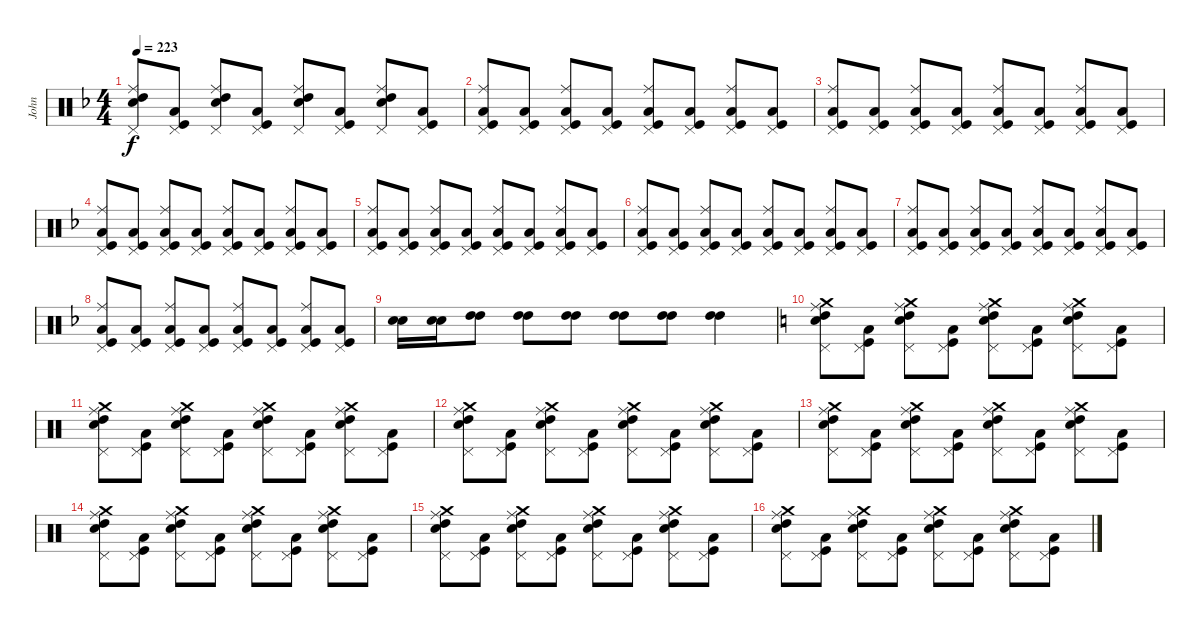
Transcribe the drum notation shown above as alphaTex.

\track ("John" "John") {instrument percussion}
\staff {score}
\articulation defaults
\ts (4 4)
\tempo 223
\clef neutral
\ks f
("Ride (middle)" "Snare (hit) 2" "High Tom (hit)" "Pedal Hi-Hat (hit)").8{dy f} ("Kick (hit)" "Low Tom (hit)" "Pedal Hi-Hat (hit)").8 ("Ride (middle)" "Snare (hit) 2" "High Tom (hit)" "Pedal Hi-Hat (hit)").8 ("Kick (hit)" "Low Tom (hit)" "Pedal Hi-Hat (hit)").8 ("Ride (middle)" "Snare (hit) 2" "High Tom (hit)" "Pedal Hi-Hat (hit)").8 ("Kick (hit)" "Low Tom (hit)" "Pedal Hi-Hat (hit)").8 ("Ride (middle)" "Snare (hit) 2" "High Tom (hit)" "Pedal Hi-Hat (hit)").8 ("Kick (hit)" "Low Tom (hit)" "Pedal Hi-Hat (hit)").8 |
("Ride (middle)" "Kick (hit)" "Low Tom (hit)" "Pedal Hi-Hat (hit)").8 ("Kick (hit)" "Low Tom (hit)" "Pedal Hi-Hat (hit)").8 ("Ride (middle)" "Kick (hit)" "Low Tom (hit)" "Pedal Hi-Hat (hit)").8 ("Kick (hit)" "Low Tom (hit)" "Pedal Hi-Hat (hit)").8 ("Ride (middle)" "Kick (hit)" "Low Tom (hit)" "Pedal Hi-Hat (hit)").8 ("Kick (hit)" "Low Tom (hit)" "Pedal Hi-Hat (hit)").8 ("Ride (middle)" "Kick (hit)" "Low Tom (hit)" "Pedal Hi-Hat (hit)").8 ("Kick (hit)" "Low Tom (hit)" "Pedal Hi-Hat (hit)").8 |
("Ride (middle)" "Kick (hit)" "Low Tom (hit)" "Pedal Hi-Hat (hit)").8 ("Kick (hit)" "Low Tom (hit)" "Pedal Hi-Hat (hit)").8 ("Ride (middle)" "Kick (hit)" "Low Tom (hit)" "Pedal Hi-Hat (hit)").8 ("Kick (hit)" "Low Tom (hit)" "Pedal Hi-Hat (hit)").8 ("Ride (middle)" "Kick (hit)" "Low Tom (hit)" "Pedal Hi-Hat (hit)").8 ("Kick (hit)" "Low Tom (hit)" "Pedal Hi-Hat (hit)").8 ("Ride (middle)" "Kick (hit)" "Low Tom (hit)" "Pedal Hi-Hat (hit)").8 ("Kick (hit)" "Low Tom (hit)" "Pedal Hi-Hat (hit)").8 |
("Ride (middle)" "Kick (hit)" "Low Tom (hit)" "Pedal Hi-Hat (hit)").8 ("Kick (hit)" "Low Tom (hit)" "Pedal Hi-Hat (hit)").8 ("Ride (middle)" "Kick (hit)" "Low Tom (hit)" "Pedal Hi-Hat (hit)").8 ("Kick (hit)" "Low Tom (hit)" "Pedal Hi-Hat (hit)").8 ("Ride (middle)" "Kick (hit)" "Low Tom (hit)" "Pedal Hi-Hat (hit)").8 ("Kick (hit)" "Low Tom (hit)" "Pedal Hi-Hat (hit)").8 ("Ride (middle)" "Kick (hit)" "Low Tom (hit)" "Pedal Hi-Hat (hit)").8 ("Kick (hit)" "Low Tom (hit)" "Pedal Hi-Hat (hit)").8 |
("Ride (middle)" "Kick (hit)" "Low Tom (hit)" "Pedal Hi-Hat (hit)").8 ("Kick (hit)" "Low Tom (hit)" "Pedal Hi-Hat (hit)").8 ("Ride (middle)" "Kick (hit)" "Low Tom (hit)" "Pedal Hi-Hat (hit)").8 ("Kick (hit)" "Low Tom (hit)" "Pedal Hi-Hat (hit)").8 ("Ride (middle)" "Kick (hit)" "Low Tom (hit)" "Pedal Hi-Hat (hit)").8 ("Kick (hit)" "Low Tom (hit)" "Pedal Hi-Hat (hit)").8 ("Ride (middle)" "Kick (hit)" "Low Tom (hit)" "Pedal Hi-Hat (hit)").8 ("Kick (hit)" "Low Tom (hit)" "Pedal Hi-Hat (hit)").8 |
("Ride (middle)" "Kick (hit)" "Low Tom (hit)" "Pedal Hi-Hat (hit)").8 ("Kick (hit)" "Low Tom (hit)" "Pedal Hi-Hat (hit)").8 ("Ride (middle)" "Kick (hit)" "Low Tom (hit)" "Pedal Hi-Hat (hit)").8 ("Kick (hit)" "Low Tom (hit)" "Pedal Hi-Hat (hit)").8 ("Ride (middle)" "Kick (hit)" "Low Tom (hit)" "Pedal Hi-Hat (hit)").8 ("Kick (hit)" "Low Tom (hit)" "Pedal Hi-Hat (hit)").8 ("Ride (middle)" "Kick (hit)" "Low Tom (hit)" "Pedal Hi-Hat (hit)").8 ("Kick (hit)" "Low Tom (hit)" "Pedal Hi-Hat (hit)").8 |
("Ride (middle)" "Kick (hit)" "Low Tom (hit)" "Pedal Hi-Hat (hit)").8 ("Kick (hit)" "Low Tom (hit)" "Pedal Hi-Hat (hit)").8 ("Ride (middle)" "Kick (hit)" "Low Tom (hit)" "Pedal Hi-Hat (hit)").8 ("Kick (hit)" "Low Tom (hit)" "Pedal Hi-Hat (hit)").8 ("Ride (middle)" "Kick (hit)" "Low Tom (hit)" "Pedal Hi-Hat (hit)").8 ("Kick (hit)" "Low Tom (hit)" "Pedal Hi-Hat (hit)").8 ("Ride (middle)" "Kick (hit)" "Low Tom (hit)" "Pedal Hi-Hat (hit)").8 ("Kick (hit)" "Low Tom (hit)" "Pedal Hi-Hat (hit)").8 |
("Ride (middle)" "Kick (hit)" "Low Tom (hit)" "Pedal Hi-Hat (hit)").8 ("Kick (hit)" "Low Tom (hit)" "Pedal Hi-Hat (hit)").8 ("Ride (middle)" "Kick (hit)" "Low Tom (hit)" "Pedal Hi-Hat (hit)").8 ("Kick (hit)" "Low Tom (hit)" "Pedal Hi-Hat (hit)").8 ("Ride (middle)" "Kick (hit)" "Low Tom (hit)" "Pedal Hi-Hat (hit)").8 ("Kick (hit)" "Low Tom (hit)" "Pedal Hi-Hat (hit)").8 ("Ride (middle)" "Kick (hit)" "Low Tom (hit)" "Pedal Hi-Hat (hit)").8 ("Kick (hit)" "Low Tom (hit)" "Pedal Hi-Hat (hit)").8 |
("Snare (hit) 2" "Snare (hit) 2").16 ("Snare (hit) 2" "Snare (hit) 2").16 ("High Tom (hit)" "High Tom (hit)").8 ("High Tom (hit)" "High Tom (hit)").8 ("High Tom (hit)" "High Tom (hit)").8 ("High Tom (hit)" "High Tom (hit)").8 ("High Tom (hit)" "High Tom (hit)").8 ("High Tom (hit)" "High Tom (hit)").4 |
\ks c
("Crash medium (hit)" "Ride (middle)" "Snare (hit) 2" "High Tom (hit)" "Pedal Hi-Hat (hit)").8 ("Kick (hit)" "Low Tom (hit)" "Pedal Hi-Hat (hit)").8 ("Crash medium (hit)" "Ride (middle)" "Snare (hit) 2" "High Tom (hit)" "Pedal Hi-Hat (hit)").8 ("Kick (hit)" "Low Tom (hit)" "Pedal Hi-Hat (hit)").8 ("Crash medium (hit)" "Ride (middle)" "Snare (hit) 2" "High Tom (hit)" "Pedal Hi-Hat (hit)").8 ("Kick (hit)" "Low Tom (hit)" "Pedal Hi-Hat (hit)").8 ("Crash medium (hit)" "Ride (middle)" "Snare (hit) 2" "High Tom (hit)" "Pedal Hi-Hat (hit)").8 ("Kick (hit)" "Low Tom (hit)" "Pedal Hi-Hat (hit)").8 |
("Crash medium (hit)" "Ride (middle)" "Snare (hit) 2" "High Tom (hit)" "Pedal Hi-Hat (hit)").8 ("Kick (hit)" "Low Tom (hit)" "Pedal Hi-Hat (hit)").8 ("Crash medium (hit)" "Ride (middle)" "Snare (hit) 2" "High Tom (hit)" "Pedal Hi-Hat (hit)").8 ("Kick (hit)" "Low Tom (hit)" "Pedal Hi-Hat (hit)").8 ("Crash medium (hit)" "Ride (middle)" "Snare (hit) 2" "High Tom (hit)" "Pedal Hi-Hat (hit)").8 ("Kick (hit)" "Low Tom (hit)" "Pedal Hi-Hat (hit)").8 ("Crash medium (hit)" "Ride (middle)" "Snare (hit) 2" "High Tom (hit)" "Pedal Hi-Hat (hit)").8 ("Kick (hit)" "Low Tom (hit)" "Pedal Hi-Hat (hit)").8 |
("Crash medium (hit)" "Ride (middle)" "Snare (hit) 2" "High Tom (hit)" "Pedal Hi-Hat (hit)").8 ("Kick (hit)" "Low Tom (hit)" "Pedal Hi-Hat (hit)").8 ("Crash medium (hit)" "Ride (middle)" "Snare (hit) 2" "High Tom (hit)" "Pedal Hi-Hat (hit)").8 ("Kick (hit)" "Low Tom (hit)" "Pedal Hi-Hat (hit)").8 ("Crash medium (hit)" "Ride (middle)" "Snare (hit) 2" "High Tom (hit)" "Pedal Hi-Hat (hit)").8 ("Kick (hit)" "Low Tom (hit)" "Pedal Hi-Hat (hit)").8 ("Crash medium (hit)" "Ride (middle)" "Snare (hit) 2" "High Tom (hit)" "Pedal Hi-Hat (hit)").8 ("Kick (hit)" "Low Tom (hit)" "Pedal Hi-Hat (hit)").8 |
("Crash medium (hit)" "Ride (middle)" "Snare (hit) 2" "High Tom (hit)" "Pedal Hi-Hat (hit)").8 ("Kick (hit)" "Low Tom (hit)" "Pedal Hi-Hat (hit)").8 ("Crash medium (hit)" "Ride (middle)" "Snare (hit) 2" "High Tom (hit)" "Pedal Hi-Hat (hit)").8 ("Kick (hit)" "Low Tom (hit)" "Pedal Hi-Hat (hit)").8 ("Crash medium (hit)" "Ride (middle)" "Snare (hit) 2" "High Tom (hit)" "Pedal Hi-Hat (hit)").8 ("Kick (hit)" "Low Tom (hit)" "Pedal Hi-Hat (hit)").8 ("Crash medium (hit)" "Ride (middle)" "Snare (hit) 2" "High Tom (hit)" "Pedal Hi-Hat (hit)").8 ("Kick (hit)" "Low Tom (hit)" "Pedal Hi-Hat (hit)").8 |
("Crash medium (hit)" "Ride (middle)" "Snare (hit) 2" "High Tom (hit)" "Pedal Hi-Hat (hit)").8 ("Kick (hit)" "Low Tom (hit)" "Pedal Hi-Hat (hit)").8 ("Crash medium (hit)" "Ride (middle)" "Snare (hit) 2" "High Tom (hit)" "Pedal Hi-Hat (hit)").8 ("Kick (hit)" "Low Tom (hit)" "Pedal Hi-Hat (hit)").8 ("Crash medium (hit)" "Ride (middle)" "Snare (hit) 2" "High Tom (hit)" "Pedal Hi-Hat (hit)").8 ("Kick (hit)" "Low Tom (hit)" "Pedal Hi-Hat (hit)").8 ("Crash medium (hit)" "Ride (middle)" "Snare (hit) 2" "High Tom (hit)" "Pedal Hi-Hat (hit)").8 ("Kick (hit)" "Low Tom (hit)" "Pedal Hi-Hat (hit)").8 |
("Crash medium (hit)" "Ride (middle)" "Snare (hit) 2" "High Tom (hit)" "Pedal Hi-Hat (hit)").8 ("Kick (hit)" "Low Tom (hit)" "Pedal Hi-Hat (hit)").8 ("Crash medium (hit)" "Ride (middle)" "Snare (hit) 2" "High Tom (hit)" "Pedal Hi-Hat (hit)").8 ("Kick (hit)" "Low Tom (hit)" "Pedal Hi-Hat (hit)").8 ("Crash medium (hit)" "Ride (middle)" "Snare (hit) 2" "High Tom (hit)" "Pedal Hi-Hat (hit)").8 ("Kick (hit)" "Low Tom (hit)" "Pedal Hi-Hat (hit)").8 ("Crash medium (hit)" "Ride (middle)" "Snare (hit) 2" "High Tom (hit)" "Pedal Hi-Hat (hit)").8 ("Kick (hit)" "Low Tom (hit)" "Pedal Hi-Hat (hit)").8 |
("Crash medium (hit)" "Ride (middle)" "Snare (hit) 2" "High Tom (hit)" "Pedal Hi-Hat (hit)").8 ("Kick (hit)" "Low Tom (hit)" "Pedal Hi-Hat (hit)").8 ("Crash medium (hit)" "Ride (middle)" "Snare (hit) 2" "High Tom (hit)" "Pedal Hi-Hat (hit)").8 ("Kick (hit)" "Low Tom (hit)" "Pedal Hi-Hat (hit)").8 ("Crash medium (hit)" "Ride (middle)" "Snare (hit) 2" "High Tom (hit)" "Pedal Hi-Hat (hit)").8 ("Kick (hit)" "Low Tom (hit)" "Pedal Hi-Hat (hit)").8 ("Crash medium (hit)" "Ride (middle)" "Snare (hit) 2" "High Tom (hit)" "Pedal Hi-Hat (hit)").8 ("Kick (hit)" "Low Tom (hit)" "Pedal Hi-Hat (hit)").8
